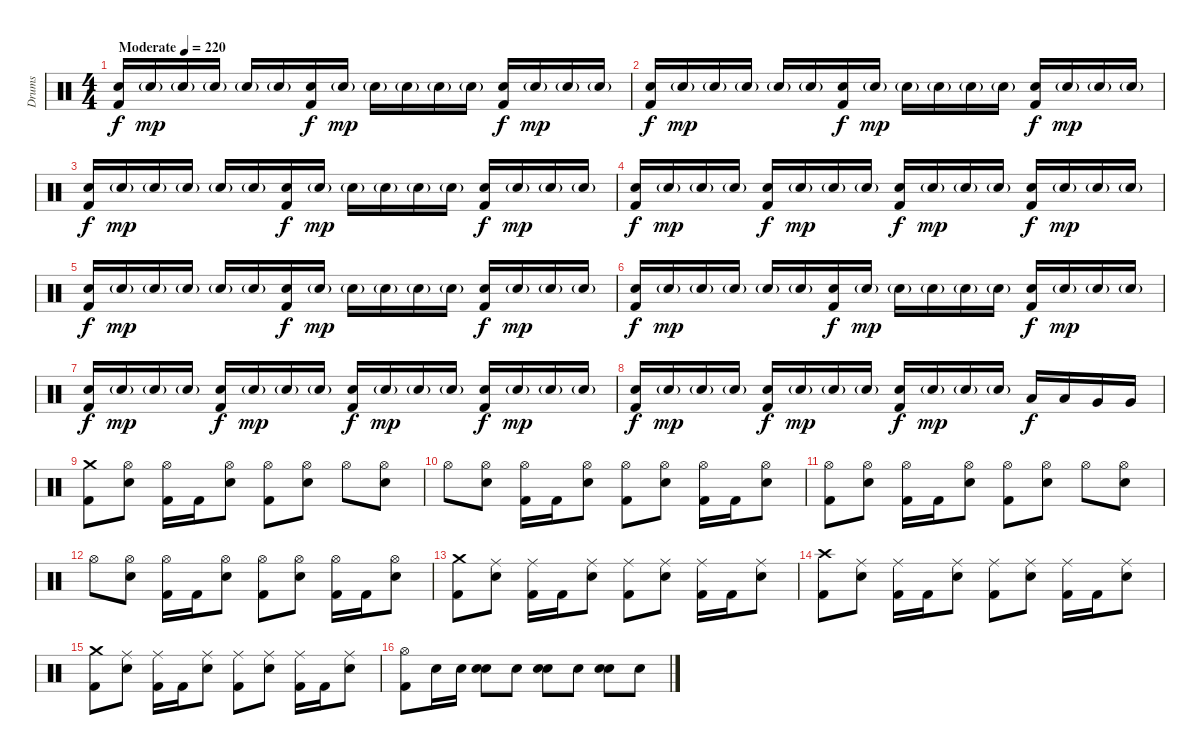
\track ("Drums" "Drums") {instrument percussion}
\staff {score}
\articulation defaults
\ts (4 4)
\tempo (220 "Moderate")
\clef neutral
\ks c
("Electric Snare (hit)" "Kick (hit) 2").16{dy f} "Electric Snare (hit)"{g}.16{dy mp} "Electric Snare (hit)"{g}.16 "Electric Snare (hit)"{g}.16 "Electric Snare (hit)"{g}.16 "Electric Snare (hit)"{g}.16 ("Electric Snare (hit)" "Kick (hit) 2").16{dy f} "Electric Snare (hit)"{g}.16{dy mp} "Electric Snare (hit)"{g}.16 "Electric Snare (hit)"{g}.16 "Electric Snare (hit)"{g}.16 "Electric Snare (hit)"{g}.16 ("Electric Snare (hit)" "Kick (hit) 2").16{dy f} "Electric Snare (hit)"{g}.16{dy mp} "Electric Snare (hit)"{g}.16 "Electric Snare (hit)"{g}.16 |
("Electric Snare (hit)" "Kick (hit) 2").16{dy f} "Electric Snare (hit)"{g}.16{dy mp} "Electric Snare (hit)"{g}.16 "Electric Snare (hit)"{g}.16 "Electric Snare (hit)"{g}.16 "Electric Snare (hit)"{g}.16 ("Electric Snare (hit)" "Kick (hit) 2").16{dy f} "Electric Snare (hit)"{g}.16{dy mp} "Electric Snare (hit)"{g}.16 "Electric Snare (hit)"{g}.16 "Electric Snare (hit)"{g}.16 "Electric Snare (hit)"{g}.16 ("Electric Snare (hit)" "Kick (hit) 2").16{dy f} "Electric Snare (hit)"{g}.16{dy mp} "Electric Snare (hit)"{g}.16 "Electric Snare (hit)"{g}.16 |
("Electric Snare (hit)" "Kick (hit) 2").16{dy f} "Electric Snare (hit)"{g}.16{dy mp} "Electric Snare (hit)"{g}.16 "Electric Snare (hit)"{g}.16 "Electric Snare (hit)"{g}.16 "Electric Snare (hit)"{g}.16 ("Electric Snare (hit)" "Kick (hit) 2").16{dy f} "Electric Snare (hit)"{g}.16{dy mp} "Electric Snare (hit)"{g}.16 "Electric Snare (hit)"{g}.16 "Electric Snare (hit)"{g}.16 "Electric Snare (hit)"{g}.16 ("Electric Snare (hit)" "Kick (hit) 2").16{dy f} "Electric Snare (hit)"{g}.16{dy mp} "Electric Snare (hit)"{g}.16 "Electric Snare (hit)"{g}.16 |
("Electric Snare (hit)" "Kick (hit) 2").16{dy f} "Electric Snare (hit)"{g}.16{dy mp} "Electric Snare (hit)"{g}.16 "Electric Snare (hit)"{g}.16 ("Electric Snare (hit)" "Kick (hit) 2").16{dy f} "Electric Snare (hit)"{g}.16{dy mp} "Electric Snare (hit)"{g}.16 "Electric Snare (hit)"{g}.16 ("Electric Snare (hit)" "Kick (hit) 2").16{dy f} "Electric Snare (hit)"{g}.16{dy mp} "Electric Snare (hit)"{g}.16 "Electric Snare (hit)"{g}.16 ("Electric Snare (hit)" "Kick (hit) 2").16{dy f} "Electric Snare (hit)"{g}.16{dy mp} "Electric Snare (hit)"{g}.16 "Electric Snare (hit)"{g}.16 |
("Electric Snare (hit)" "Kick (hit) 2").16{dy f} "Electric Snare (hit)"{g}.16{dy mp} "Electric Snare (hit)"{g}.16 "Electric Snare (hit)"{g}.16 "Electric Snare (hit)"{g}.16 "Electric Snare (hit)"{g}.16 ("Electric Snare (hit)" "Kick (hit) 2").16{dy f} "Electric Snare (hit)"{g}.16{dy mp} "Electric Snare (hit)"{g}.16 "Electric Snare (hit)"{g}.16 "Electric Snare (hit)"{g}.16 "Electric Snare (hit)"{g}.16 ("Electric Snare (hit)" "Kick (hit) 2").16{dy f} "Electric Snare (hit)"{g}.16{dy mp} "Electric Snare (hit)"{g}.16 "Electric Snare (hit)"{g}.16 |
("Electric Snare (hit)" "Kick (hit) 2").16{dy f} "Electric Snare (hit)"{g}.16{dy mp} "Electric Snare (hit)"{g}.16 "Electric Snare (hit)"{g}.16 "Electric Snare (hit)"{g}.16 "Electric Snare (hit)"{g}.16 ("Electric Snare (hit)" "Kick (hit) 2").16{dy f} "Electric Snare (hit)"{g}.16{dy mp} "Electric Snare (hit)"{g}.16 "Electric Snare (hit)"{g}.16 "Electric Snare (hit)"{g}.16 "Electric Snare (hit)"{g}.16 ("Electric Snare (hit)" "Kick (hit) 2").16{dy f} "Electric Snare (hit)"{g}.16{dy mp} "Electric Snare (hit)"{g}.16 "Electric Snare (hit)"{g}.16 |
("Electric Snare (hit)" "Kick (hit) 2").16{dy f} "Electric Snare (hit)"{g}.16{dy mp} "Electric Snare (hit)"{g}.16 "Electric Snare (hit)"{g}.16 ("Electric Snare (hit)" "Kick (hit) 2").16{dy f} "Electric Snare (hit)"{g}.16{dy mp} "Electric Snare (hit)"{g}.16 "Electric Snare (hit)"{g}.16 ("Electric Snare (hit)" "Kick (hit) 2").16{dy f} "Electric Snare (hit)"{g}.16{dy mp} "Electric Snare (hit)"{g}.16 "Electric Snare (hit)"{g}.16 ("Electric Snare (hit)" "Kick (hit) 2").16{dy f} "Electric Snare (hit)"{g}.16{dy mp} "Electric Snare (hit)"{g}.16 "Electric Snare (hit)"{g}.16 |
("Electric Snare (hit)" "Kick (hit) 2").16{dy f} "Electric Snare (hit)"{g}.16{dy mp} "Electric Snare (hit)"{g}.16 "Electric Snare (hit)"{g}.16 ("Electric Snare (hit)" "Kick (hit) 2").16{dy f} "Electric Snare (hit)"{g}.16{dy mp} "Electric Snare (hit)"{g}.16 "Electric Snare (hit)"{g}.16 ("Electric Snare (hit)" "Kick (hit) 2").16{dy f} "Electric Snare (hit)"{g}.16{dy mp} "Electric Snare (hit)"{g}.16 "Electric Snare (hit)"{g}.16 "Low Tom (hit)".16{dy f} "Low Tom (hit)".16 "Very Low Tom (hit)".16 "Very Low Tom (hit)".16 |
("Crash medium (hit)" "Kick (hit) 2").8 ("Hi-Hat (open)" "Electric Snare (hit)").8 ("Hi-Hat (open)" "Kick (hit) 2").16 "Kick (hit) 2".16 ("Hi-Hat (open)" "Electric Snare (hit)").8 ("Hi-Hat (open)" "Kick (hit) 2").8 ("Hi-Hat (open)" "Electric Snare (hit)").8 "Hi-Hat (open)".8 ("Hi-Hat (open)" "Electric Snare (hit)").8 |
"Hi-Hat (open)".8 ("Hi-Hat (open)" "Electric Snare (hit)").8 ("Hi-Hat (open)" "Kick (hit) 2").16 "Kick (hit) 2".16 ("Hi-Hat (open)" "Electric Snare (hit)").8 ("Hi-Hat (open)" "Kick (hit) 2").8 ("Hi-Hat (open)" "Electric Snare (hit)").8 ("Hi-Hat (open)" "Kick (hit) 2").16 "Kick (hit) 2".16 ("Hi-Hat (open)" "Electric Snare (hit)").8 |
("Hi-Hat (open)" "Kick (hit) 2").8 ("Hi-Hat (open)" "Electric Snare (hit)").8 ("Hi-Hat (open)" "Kick (hit) 2").16 "Kick (hit) 2".16 ("Hi-Hat (open)" "Electric Snare (hit)").8 ("Hi-Hat (open)" "Kick (hit) 2").8 ("Hi-Hat (open)" "Electric Snare (hit)").8 "Hi-Hat (open)".8 ("Hi-Hat (open)" "Electric Snare (hit)").8 |
"Hi-Hat (open)".8 ("Hi-Hat (open)" "Electric Snare (hit)").8 ("Hi-Hat (open)" "Kick (hit) 2").16 "Kick (hit) 2".16 ("Hi-Hat (open)" "Electric Snare (hit)").8 ("Hi-Hat (open)" "Kick (hit) 2").8 ("Hi-Hat (open)" "Electric Snare (hit)").8 ("Hi-Hat (open)" "Kick (hit) 2").16 "Kick (hit) 2".16 ("Hi-Hat (open)" "Electric Snare (hit)").8 |
("Crash medium (hit)" "Kick (hit) 2").8 ("Ride (middle)" "Electric Snare (hit)").8 ("Ride (middle)" "Kick (hit) 2").16 "Kick (hit) 2".16 ("Ride (middle)" "Electric Snare (hit)").8 ("Ride (middle)" "Kick (hit) 2").8 ("Ride (middle)" "Electric Snare (hit)").8 ("Ride (middle)" "Kick (hit) 2").16 "Kick (hit) 2".16 ("Ride (middle)" "Electric Snare (hit)").8 |
("Crash high (hit)" "Kick (hit) 2").8 ("Ride (middle)" "Electric Snare (hit)").8 ("Ride (middle)" "Kick (hit) 2").16 "Kick (hit) 2".16 ("Ride (middle)" "Electric Snare (hit)").8 ("Ride (middle)" "Kick (hit) 2").8 ("Ride (middle)" "Electric Snare (hit)").8 ("Ride (middle)" "Kick (hit) 2").16 "Kick (hit) 2".16 ("Ride (middle)" "Electric Snare (hit)").8 |
("Crash medium (hit)" "Kick (hit) 2").8 ("Ride (middle)" "Electric Snare (hit)").8 ("Ride (middle)" "Kick (hit) 2").16 "Kick (hit) 2".16 ("Ride (middle)" "Electric Snare (hit)").8 ("Ride (middle)" "Kick (hit) 2").8 ("Ride (middle)" "Electric Snare (hit)").8 ("Ride (middle)" "Kick (hit) 2").16 "Kick (hit) 2".16 ("Ride (middle)" "Electric Snare (hit)").8 |
("Hi-Hat (open)" "Kick (hit) 2").8 "Electric Snare (hit)".16 "Electric Snare (hit)".16 ("Electric Snare (hit)" "Electric Snare (hit)").8 "Electric Snare (hit)".8 ("Electric Snare (hit)" "Electric Snare (hit)").8 "Electric Snare (hit)".8 ("Electric Snare (hit)" "Electric Snare (hit)").8 "Electric Snare (hit)".8
